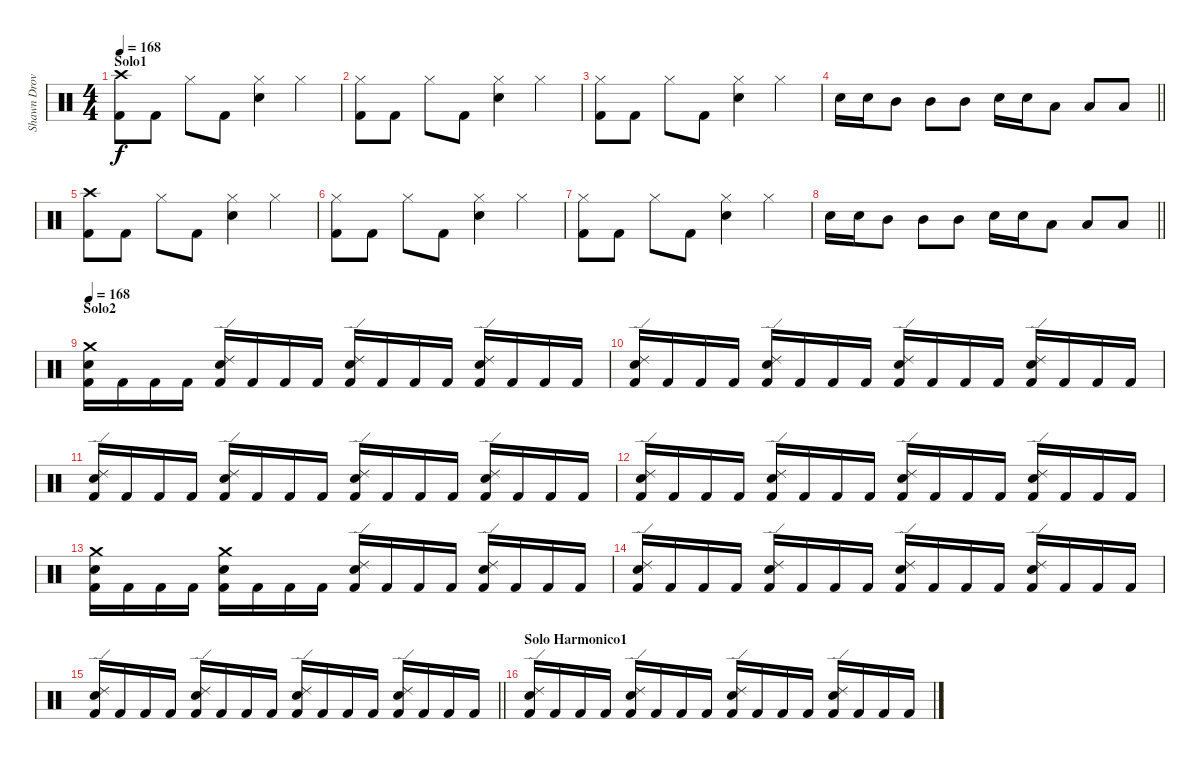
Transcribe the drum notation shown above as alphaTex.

\track ("Shawn Drover" "Shawn Drov") {instrument percussion}
\staff {score}
\articulation defaults
\ts (4 4)
\section ("" "Solo1")
\tempo 168
\clef neutral
\ks c
("Crash high (hit)" "Kick (hit) 2").8{dy f} "Kick (hit) 2".8 "Hi-Hat (closed)".8 "Kick (hit) 2".8 ("Hi-Hat (closed)" "Electric Snare (hit)").4 "Hi-Hat (closed)".4 |
("Hi-Hat (closed)" "Kick (hit) 2").8 "Kick (hit) 2".8 "Hi-Hat (closed)".8 "Kick (hit) 2".8 ("Hi-Hat (closed)" "Electric Snare (hit)").4 "Hi-Hat (closed)".4 |
("Hi-Hat (closed)" "Kick (hit) 2").8 "Kick (hit) 2".8 "Hi-Hat (closed)".8 "Kick (hit) 2".8 ("Hi-Hat (closed)" "Electric Snare (hit)").4 "Hi-Hat (closed)".4 |
\barLineRight lightlight "Electric Snare (hit)".16 "Electric Snare (hit)".16 "Mid Tom (hit)".8 "Mid Tom (hit)".8 "Mid Tom (hit)".8 "Electric Snare (hit)".16 "Electric Snare (hit)".16 "Low Tom (hit)".8 "Low Tom (hit)".8 "Low Tom (hit)".8
|
("Crash high (hit)" "Kick (hit) 2").8 "Kick (hit) 2".8 "Hi-Hat (closed)".8 "Kick (hit) 2".8 ("Hi-Hat (closed)" "Electric Snare (hit)").4 "Hi-Hat (closed)".4 |
("Hi-Hat (closed)" "Kick (hit) 2").8 "Kick (hit) 2".8 "Hi-Hat (closed)".8 "Kick (hit) 2".8 ("Hi-Hat (closed)" "Electric Snare (hit)").4 "Hi-Hat (closed)".4 |
("Hi-Hat (closed)" "Kick (hit) 2").8 "Kick (hit) 2".8 "Hi-Hat (closed)".8 "Kick (hit) 2".8 ("Hi-Hat (closed)" "Electric Snare (hit)").4 "Hi-Hat (closed)".4 |
\barLineRight lightlight "Electric Snare (hit)".16 "Electric Snare (hit)".16 "Mid Tom (hit)".8 "Mid Tom (hit)".8 "Mid Tom (hit)".8 "Electric Snare (hit)".16 "Electric Snare (hit)".16 "Low Tom (hit)".8 "Low Tom (hit)".8 "Low Tom (hit)".8
|
\section ("" "Solo2")
\tempo 168
("Crash medium (hit)" "Electric Snare (hit)" "Kick (hit) 2").16 "Kick (hit) 2".16 "Kick (hit) 2".16 "Kick (hit) 2".16 ("Ride (edge) 2" "Electric Snare (hit)" "Kick (hit) 2").16 "Kick (hit) 2".16 "Kick (hit) 2".16 "Kick (hit) 2".16 ("Ride (edge) 2" "Electric Snare (hit)" "Kick (hit) 2").16 "Kick (hit) 2".16 "Kick (hit) 2".16 "Kick (hit) 2".16 ("Ride (edge) 2" "Electric Snare (hit)" "Kick (hit) 2").16 "Kick (hit) 2".16 "Kick (hit) 2".16 "Kick (hit) 2".16 |
("Ride (edge) 2" "Electric Snare (hit)" "Kick (hit) 2").16 "Kick (hit) 2".16 "Kick (hit) 2".16 "Kick (hit) 2".16 ("Ride (edge) 2" "Electric Snare (hit)" "Kick (hit) 2").16 "Kick (hit) 2".16 "Kick (hit) 2".16 "Kick (hit) 2".16 ("Ride (edge) 2" "Electric Snare (hit)" "Kick (hit) 2").16 "Kick (hit) 2".16 "Kick (hit) 2".16 "Kick (hit) 2".16 ("Ride (edge) 2" "Electric Snare (hit)" "Kick (hit) 2").16 "Kick (hit) 2".16 "Kick (hit) 2".16 "Kick (hit) 2".16 |
("Ride (edge) 2" "Electric Snare (hit)" "Kick (hit) 2").16 "Kick (hit) 2".16 "Kick (hit) 2".16 "Kick (hit) 2".16 ("Ride (edge) 2" "Electric Snare (hit)" "Kick (hit) 2").16 "Kick (hit) 2".16 "Kick (hit) 2".16 "Kick (hit) 2".16 ("Ride (edge) 2" "Electric Snare (hit)" "Kick (hit) 2").16 "Kick (hit) 2".16 "Kick (hit) 2".16 "Kick (hit) 2".16 ("Ride (edge) 2" "Electric Snare (hit)" "Kick (hit) 2").16 "Kick (hit) 2".16 "Kick (hit) 2".16 "Kick (hit) 2".16 |
("Ride (edge) 2" "Electric Snare (hit)" "Kick (hit) 2").16 "Kick (hit) 2".16 "Kick (hit) 2".16 "Kick (hit) 2".16 ("Ride (edge) 2" "Electric Snare (hit)" "Kick (hit) 2").16 "Kick (hit) 2".16 "Kick (hit) 2".16 "Kick (hit) 2".16 ("Ride (edge) 2" "Electric Snare (hit)" "Kick (hit) 2").16 "Kick (hit) 2".16 "Kick (hit) 2".16 "Kick (hit) 2".16 ("Ride (edge) 2" "Electric Snare (hit)" "Kick (hit) 2").16 "Kick (hit) 2".16 "Kick (hit) 2".16 "Kick (hit) 2".16 |
("Crash medium (hit)" "Electric Snare (hit)" "Kick (hit) 2").16 "Kick (hit) 2".16 "Kick (hit) 2".16 "Kick (hit) 2".16 ("Crash medium (hit)" "Electric Snare (hit)" "Kick (hit) 2").16 "Kick (hit) 2".16 "Kick (hit) 2".16 "Kick (hit) 2".16 ("Ride (edge) 2" "Electric Snare (hit)" "Kick (hit) 2").16 "Kick (hit) 2".16 "Kick (hit) 2".16 "Kick (hit) 2".16 ("Ride (edge) 2" "Electric Snare (hit)" "Kick (hit) 2").16 "Kick (hit) 2".16 "Kick (hit) 2".16 "Kick (hit) 2".16 |
("Ride (edge) 2" "Electric Snare (hit)" "Kick (hit) 2").16 "Kick (hit) 2".16 "Kick (hit) 2".16 "Kick (hit) 2".16 ("Ride (edge) 2" "Electric Snare (hit)" "Kick (hit) 2").16 "Kick (hit) 2".16 "Kick (hit) 2".16 "Kick (hit) 2".16 ("Ride (edge) 2" "Electric Snare (hit)" "Kick (hit) 2").16 "Kick (hit) 2".16 "Kick (hit) 2".16 "Kick (hit) 2".16 ("Ride (edge) 2" "Electric Snare (hit)" "Kick (hit) 2").16 "Kick (hit) 2".16 "Kick (hit) 2".16 "Kick (hit) 2".16 |
\barLineRight lightlight
("Ride (edge) 2" "Electric Snare (hit)" "Kick (hit) 2").16 "Kick (hit) 2".16 "Kick (hit) 2".16 "Kick (hit) 2".16 ("Ride (edge) 2" "Electric Snare (hit)" "Kick (hit) 2").16 "Kick (hit) 2".16 "Kick (hit) 2".16 "Kick (hit) 2".16 ("Ride (edge) 2" "Electric Snare (hit)" "Kick (hit) 2").16 "Kick (hit) 2".16 "Kick (hit) 2".16 "Kick (hit) 2".16 ("Ride (edge) 2" "Electric Snare (hit)" "Kick (hit) 2").16 "Kick (hit) 2".16 "Kick (hit) 2".16 "Kick (hit) 2".16 |
\section ("" "Solo Harmonico1")
("Ride (edge) 2" "Electric Snare (hit)" "Kick (hit) 2").16 "Kick (hit) 2".16 "Kick (hit) 2".16 "Kick (hit) 2".16 ("Ride (edge) 2" "Electric Snare (hit)" "Kick (hit) 2").16 "Kick (hit) 2".16 "Kick (hit) 2".16 "Kick (hit) 2".16 ("Ride (edge) 2" "Electric Snare (hit)" "Kick (hit) 2").16 "Kick (hit) 2".16 "Kick (hit) 2".16 "Kick (hit) 2".16 ("Ride (edge) 2" "Electric Snare (hit)" "Kick (hit) 2").16 "Kick (hit) 2".16 "Kick (hit) 2".16 "Kick (hit) 2".16
